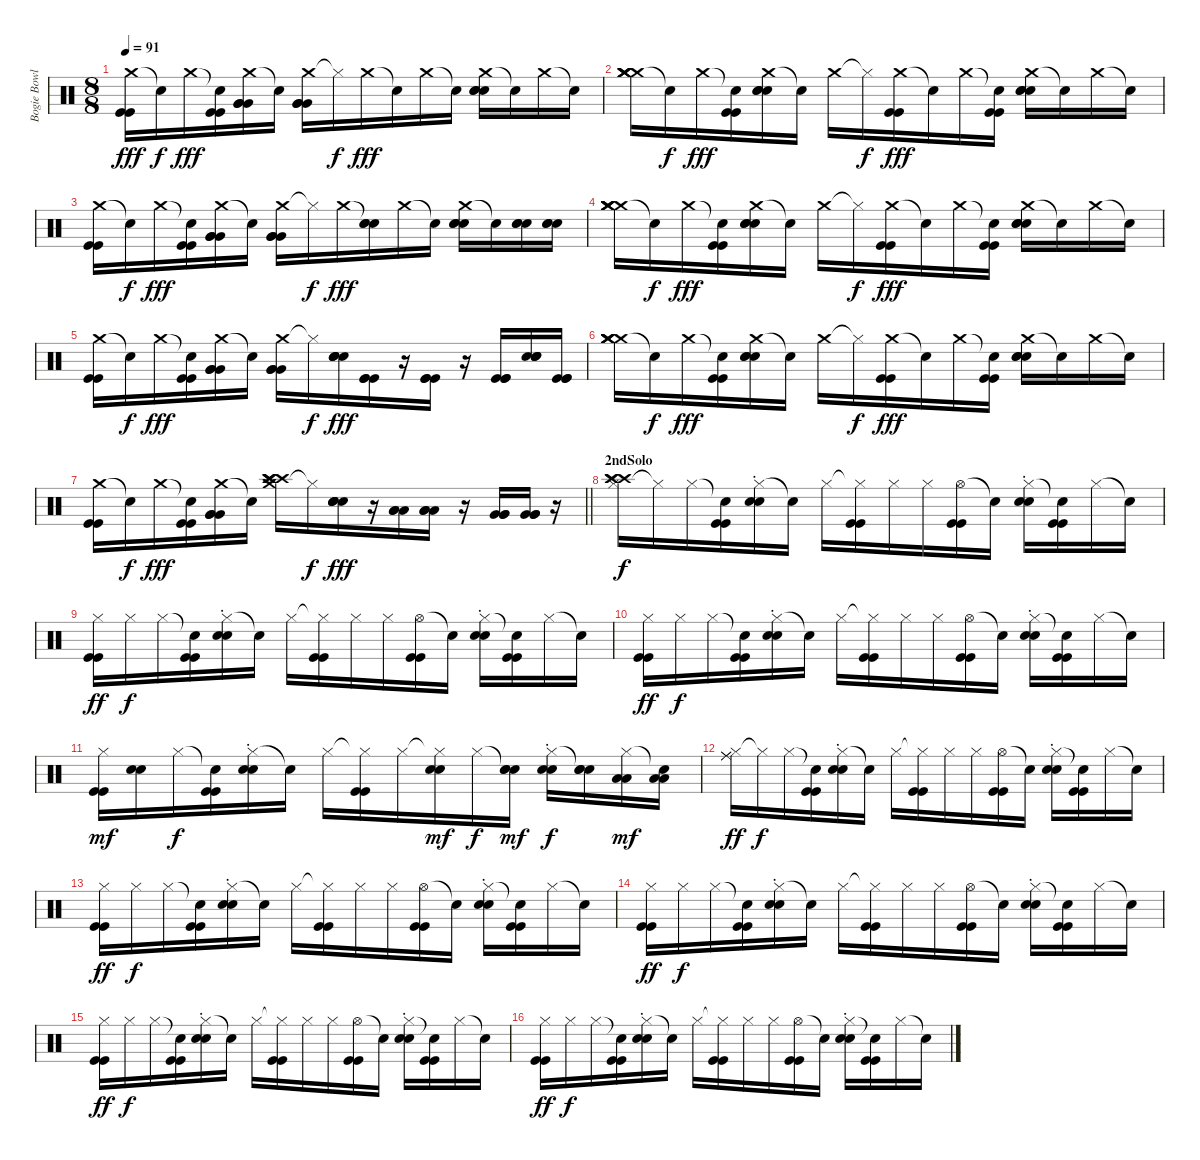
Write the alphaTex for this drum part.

\track ("Bogie Bowles Drums" "Bogie Bowl") {instrument percussion}
\staff {score}
\articulation defaults
\ts (8 8)
\tempo 91
\clef neutral
\ks c
("Crash medium (hit)" "Kick (hit)" "Kick (hit)").16{dy fff} "Snare (hit)"{t}.16{dy f} "Crash medium (hit)".16{dy fff} ("Snare (hit)"{t} "Kick (hit)" "Kick (hit)").16 ("Crash medium (hit)" "Very Low Tom (hit)" "Very Low Tom (hit)" "Very Low Tom (hit)").16 "Snare (hit)"{t}.16 ("Crash medium (hit)" "Very Low Tom (hit)" "Very Low Tom (hit)" "Very Low Tom (hit)").16 "Hi-Hat (closed)"{t}.16{dy f} "Crash medium (hit)".16{dy fff} "Snare (hit)"{t}.16 "Crash medium (hit)".16 "Snare (hit)"{t}.16 ("Crash medium (hit)" "Snare (hit) 2" "Snare (hit) 2" "Snare (hit) 2").16 "Snare (hit)"{t}.16 "Crash medium (hit)".16 "Snare (hit)"{t}.16 |
("Crash medium (hit)" "Crash medium (hit)" "Crash medium (hit)" "Crash medium (hit)" "Crash medium (hit)").16 "Snare (hit)"{t}.16{dy f} "Crash medium (hit)".16{dy fff} ("Snare (hit)"{t} "Kick (hit)" "Kick (hit)").16 ("Crash medium (hit)" "Snare (hit) 2" "Snare (hit) 2" "Snare (hit) 2").16 "Snare (hit)"{t}.16 "Crash medium (hit)".16 "Hi-Hat (closed)"{t}.16{dy f} ("Crash medium (hit)" "Kick (hit)" "Kick (hit)").16{dy fff} "Snare (hit)"{t}.16 "Crash medium (hit)".16 ("Snare (hit)"{t} "Kick (hit)" "Kick (hit)").16 ("Crash medium (hit)" "Snare (hit) 2" "Snare (hit) 2" "Snare (hit) 2").16 "Snare (hit)"{t}.16 "Crash medium (hit)".16 "Snare (hit)"{t}.16 |
("Crash medium (hit)" "Kick (hit)" "Kick (hit)").16 "Snare (hit)"{t}.16{dy f} "Crash medium (hit)".16{dy fff} ("Snare (hit)"{t} "Kick (hit)" "Kick (hit)").16 ("Crash medium (hit)" "Very Low Tom (hit)" "Very Low Tom (hit)" "Very Low Tom (hit)").16 "Snare (hit)"{t}.16 ("Crash medium (hit)" "Very Low Tom (hit)" "Very Low Tom (hit)" "Very Low Tom (hit)").16 "Hi-Hat (closed)"{t}.16{dy f} "Crash medium (hit)".16{dy fff} ("Snare (hit)"{t} "Snare (hit) 2" "Snare (hit) 2").16 "Crash medium (hit)".16 "Snare (hit)"{t}.16 ("Crash medium (hit)" "Snare (hit) 2" "Snare (hit) 2" "Snare (hit) 2").16 "Snare (hit)"{t}.16 ("Snare (hit) 2" "Snare (hit) 2" "Snare (hit) 2").16 ("Snare (hit) 2" "Snare (hit) 2" "Snare (hit) 2").16 |
("Crash medium (hit)" "Crash medium (hit)" "Crash medium (hit)" "Crash medium (hit)" "Crash medium (hit)").16 "Snare (hit)"{t}.16{dy f} "Crash medium (hit)".16{dy fff} ("Snare (hit)"{t} "Kick (hit)" "Kick (hit)").16 ("Crash medium (hit)" "Snare (hit) 2" "Snare (hit) 2" "Snare (hit) 2").16 "Snare (hit)"{t}.16 "Crash medium (hit)".16 "Hi-Hat (closed)"{t}.16{dy f} ("Crash medium (hit)" "Kick (hit)" "Kick (hit)").16{dy fff} "Snare (hit)"{t}.16 "Crash medium (hit)".16 ("Snare (hit)"{t} "Kick (hit)" "Kick (hit)").16 ("Crash medium (hit)" "Snare (hit) 2" "Snare (hit) 2" "Snare (hit) 2").16 "Snare (hit)"{t}.16 "Crash medium (hit)".16 "Snare (hit)"{t}.16 |
("Crash medium (hit)" "Kick (hit)" "Kick (hit)").16 "Snare (hit)"{t}.16{dy f} "Crash medium (hit)".16{dy fff} ("Snare (hit)"{t} "Kick (hit)" "Kick (hit)").16 ("Crash medium (hit)" "Very Low Tom (hit)" "Very Low Tom (hit)" "Very Low Tom (hit)").16 "Snare (hit)"{t}.16 ("Crash medium (hit)" "Very Low Tom (hit)" "Very Low Tom (hit)" "Very Low Tom (hit)").16 "Hi-Hat (closed)"{t}.16{dy f} ("Snare (hit) 2" "Snare (hit) 2" "Snare (hit) 2" "Snare (hit) 2").16{dy fff} ("Kick (hit)" "Kick (hit)" "Kick (hit)").16 r.16 ("Kick (hit)" "Kick (hit)" "Kick (hit)").16 r.16 ("Kick (hit)" "Kick (hit)" "Kick (hit)").16 ("Snare (hit) 2" "Snare (hit) 2" "Snare (hit) 2" "Snare (hit) 2").16 ("Kick (hit)" "Kick (hit)" "Kick (hit)").16 |
("Crash medium (hit)" "Crash medium (hit)" "Crash medium (hit)" "Crash medium (hit)" "Crash medium (hit)").16 "Snare (hit)"{t}.16{dy f} "Crash medium (hit)".16{dy fff} ("Snare (hit)"{t} "Kick (hit)" "Kick (hit)").16 ("Crash medium (hit)" "Snare (hit) 2" "Snare (hit) 2" "Snare (hit) 2").16 "Snare (hit)"{t}.16 "Crash medium (hit)".16 "Hi-Hat (closed)"{t}.16{dy f} ("Crash medium (hit)" "Kick (hit)" "Kick (hit)").16{dy fff} "Snare (hit)"{t}.16 "Crash medium (hit)".16 ("Snare (hit)"{t} "Kick (hit)" "Kick (hit)").16 ("Crash medium (hit)" "Snare (hit) 2" "Snare (hit) 2" "Snare (hit) 2").16 "Snare (hit)"{t}.16 "Crash medium (hit)".16 "Snare (hit)"{t}.16 |
\barLineRight lightlight
("Crash medium (hit)" "Kick (hit)" "Kick (hit)").16 "Snare (hit)"{t}.16{dy f} "Crash medium (hit)".16{dy fff} ("Snare (hit)"{t} "Kick (hit)" "Kick (hit)").16 ("Crash medium (hit)" "Very Low Tom (hit)" "Very Low Tom (hit)" "Very Low Tom (hit)").16 "Snare (hit)"{t}.16 ("Crash medium (hit)" "Crash high (hit)" "Crash high (hit)" "Crash high (hit)" "Crash high (hit)").16 "Hi-Hat (closed)"{t}.16{dy f} ("Snare (hit) 2" "Snare (hit) 2" "Snare (hit) 2" "Snare (hit) 2").16{dy fff} r.16 ("Low Tom (hit)" "Low Tom (hit)" "Low Tom (hit)").16 ("Low Tom (hit)" "Low Tom (hit)" "Low Tom (hit)").16 r.16 ("Very Low Tom (hit)" "Very Low Tom (hit)" "Very Low Tom (hit)").16 ("Very Low Tom (hit)" "Very Low Tom (hit)" "Very Low Tom (hit)").16 r.16 |
\section ("" "2ndSolo")
("Hi-Hat (closed)" "Crash high (hit)" "Crash high (hit)" "Crash high (hit)").16{dy f} "Hi-Hat (closed)"{t}.16 "Hi-Hat (closed)".16 ("Snare (hit)"{t} "Kick (hit)" "Kick (hit)").16 ("Hi-Hat (closed)" "Snare (hit) 2"{st} "Snare (hit) 2").16 "Snare (hit)"{t}.16 "Hi-Hat (closed)".16 ("Hi-Hat (closed)"{t} "Kick (hit)" "Kick (hit)").16 "Hi-Hat (closed)".16 "Hi-Hat (closed)".16 ("Hi-Hat (open)" "Kick (hit)" "Kick (hit)").16 "Snare (hit)"{t}.16 ("Hi-Hat (closed)" "Snare (hit) 2"{st} "Snare (hit) 2").16 ("Snare (hit)"{t} "Kick (hit)" "Kick (hit)").16 "Hi-Hat (closed)".16 "Snare (hit)"{t}.16 |
("Hi-Hat (closed)" "Kick (hit)" "Kick (hit)").16{dy ff} "Hi-Hat (closed)".16{dy f} "Hi-Hat (closed)".16 ("Snare (hit)"{t} "Kick (hit)" "Kick (hit)").16 ("Hi-Hat (closed)" "Snare (hit) 2"{st} "Snare (hit) 2").16 "Snare (hit)"{t}.16 "Hi-Hat (closed)".16 ("Hi-Hat (closed)"{t} "Kick (hit)" "Kick (hit)").16 "Hi-Hat (closed)".16 "Hi-Hat (closed)".16 ("Hi-Hat (open)" "Kick (hit)" "Kick (hit)").16 "Snare (hit)"{t}.16 ("Hi-Hat (closed)" "Snare (hit) 2"{st} "Snare (hit) 2").16 ("Snare (hit)"{t} "Kick (hit)" "Kick (hit)").16 "Hi-Hat (closed)".16 "Snare (hit)"{t}.16 |
("Hi-Hat (closed)" "Kick (hit)" "Kick (hit)").16{dy ff} "Hi-Hat (closed)".16{dy f} "Hi-Hat (closed)".16 ("Snare (hit)"{t} "Kick (hit)" "Kick (hit)").16 ("Hi-Hat (closed)" "Snare (hit) 2"{st} "Snare (hit) 2").16 "Snare (hit)"{t}.16 "Hi-Hat (closed)".16 ("Hi-Hat (closed)"{t} "Kick (hit)" "Kick (hit)").16 "Hi-Hat (closed)".16 "Hi-Hat (closed)".16 ("Hi-Hat (open)" "Kick (hit)" "Kick (hit)").16 "Snare (hit)"{t}.16 ("Hi-Hat (closed)" "Snare (hit) 2"{st} "Snare (hit) 2").16 ("Snare (hit)"{t} "Kick (hit)" "Kick (hit)").16 "Hi-Hat (closed)".16 "Snare (hit)"{t}.16 |
("Hi-Hat (closed)" "Kick (hit)" "Kick (hit)").16{dy mf} ("Snare (hit) 2" "Snare (hit) 2").16 "Hi-Hat (closed)".16{dy f} ("Snare (hit)"{t} "Kick (hit)" "Kick (hit)").16 ("Hi-Hat (closed)" "Snare (hit) 2"{st} "Snare (hit) 2").16 "Snare (hit)"{t}.16 "Hi-Hat (closed)".16 ("Hi-Hat (closed)"{t} "Kick (hit)" "Kick (hit)").16 "Hi-Hat (closed)".16 ("Hi-Hat (closed)"{t} "Snare (hit) 2" "Snare (hit) 2").16{dy mf} "Hi-Hat (closed)".16{dy f} ("Snare (hit)"{t} "Snare (hit) 2" "Snare (hit) 2").16{dy mf} ("Hi-Hat (closed)" "Snare (hit) 2"{st} "Snare (hit) 2").16{dy f} ("Snare (hit)"{t} "Snare (hit) 2" "Snare (hit) 2").16 ("Hi-Hat (closed)" "Low Floor Tom (hit)" "Low Floor Tom (hit)").16{dy mf} ("Snare (hit)"{t} "Low Floor Tom (hit)" "Low Floor Tom (hit)").16 |
("Hi-Hat (closed)" "Ride (middle)" "Ride (middle)").16{dy ff} "Hi-Hat (closed)"{t}.16{dy f} "Hi-Hat (closed)".16 ("Snare (hit)"{t} "Kick (hit)" "Kick (hit)").16 ("Hi-Hat (closed)" "Snare (hit) 2"{st} "Snare (hit) 2").16 "Snare (hit)"{t}.16 "Hi-Hat (closed)".16 ("Hi-Hat (closed)"{t} "Kick (hit)" "Kick (hit)").16 "Hi-Hat (closed)".16 "Hi-Hat (closed)".16 ("Hi-Hat (open)" "Kick (hit)" "Kick (hit)").16 "Snare (hit)"{t}.16 ("Hi-Hat (closed)" "Snare (hit) 2"{st} "Snare (hit) 2").16 ("Snare (hit)"{t} "Kick (hit)" "Kick (hit)").16 "Hi-Hat (closed)".16 "Snare (hit)"{t}.16 |
("Hi-Hat (closed)" "Kick (hit)" "Kick (hit)").16{dy ff} "Hi-Hat (closed)".16{dy f} "Hi-Hat (closed)".16 ("Snare (hit)"{t} "Kick (hit)" "Kick (hit)").16 ("Hi-Hat (closed)" "Snare (hit) 2"{st} "Snare (hit) 2").16 "Snare (hit)"{t}.16 "Hi-Hat (closed)".16 ("Hi-Hat (closed)"{t} "Kick (hit)" "Kick (hit)").16 "Hi-Hat (closed)".16 "Hi-Hat (closed)".16 ("Hi-Hat (open)" "Kick (hit)" "Kick (hit)").16 "Snare (hit)"{t}.16 ("Hi-Hat (closed)" "Snare (hit) 2"{st} "Snare (hit) 2").16 ("Snare (hit)"{t} "Kick (hit)" "Kick (hit)").16 "Hi-Hat (closed)".16 "Snare (hit)"{t}.16 |
("Hi-Hat (closed)" "Kick (hit)" "Kick (hit)").16{dy ff} "Hi-Hat (closed)".16{dy f} "Hi-Hat (closed)".16 ("Snare (hit)"{t} "Kick (hit)" "Kick (hit)").16 ("Hi-Hat (closed)" "Snare (hit) 2"{st} "Snare (hit) 2").16 "Snare (hit)"{t}.16 "Hi-Hat (closed)".16 ("Hi-Hat (closed)"{t} "Kick (hit)" "Kick (hit)").16 "Hi-Hat (closed)".16 "Hi-Hat (closed)".16 ("Hi-Hat (open)" "Kick (hit)" "Kick (hit)").16 "Snare (hit)"{t}.16 ("Hi-Hat (closed)" "Snare (hit) 2"{st} "Snare (hit) 2").16 ("Snare (hit)"{t} "Kick (hit)" "Kick (hit)").16 "Hi-Hat (closed)".16 "Snare (hit)"{t}.16 |
("Hi-Hat (closed)" "Kick (hit)" "Kick (hit)").16{dy ff} "Hi-Hat (closed)".16{dy f} "Hi-Hat (closed)".16 ("Snare (hit)"{t} "Kick (hit)" "Kick (hit)").16 ("Hi-Hat (closed)" "Snare (hit) 2"{st} "Snare (hit) 2").16 "Snare (hit)"{t}.16 "Hi-Hat (closed)".16 ("Hi-Hat (closed)"{t} "Kick (hit)" "Kick (hit)").16 "Hi-Hat (closed)".16 "Hi-Hat (closed)".16 ("Hi-Hat (open)" "Kick (hit)" "Kick (hit)").16 "Snare (hit)"{t}.16 ("Hi-Hat (closed)" "Snare (hit) 2"{st} "Snare (hit) 2").16 ("Snare (hit)"{t} "Kick (hit)" "Kick (hit)").16 "Hi-Hat (closed)".16 "Snare (hit)"{t}.16 |
("Hi-Hat (closed)" "Kick (hit)" "Kick (hit)").16{dy ff} "Hi-Hat (closed)".16{dy f} "Hi-Hat (closed)".16 ("Snare (hit)"{t} "Kick (hit)" "Kick (hit)").16 ("Hi-Hat (closed)" "Snare (hit) 2"{st} "Snare (hit) 2").16 "Snare (hit)"{t}.16 "Hi-Hat (closed)".16 ("Hi-Hat (closed)"{t} "Kick (hit)" "Kick (hit)").16 "Hi-Hat (closed)".16 "Hi-Hat (closed)".16 ("Hi-Hat (open)" "Kick (hit)" "Kick (hit)").16 "Snare (hit)"{t}.16 ("Hi-Hat (closed)" "Snare (hit) 2"{st} "Snare (hit) 2").16 ("Snare (hit)"{t} "Kick (hit)" "Kick (hit)").16 "Hi-Hat (closed)".16 "Snare (hit)"{t}.16
